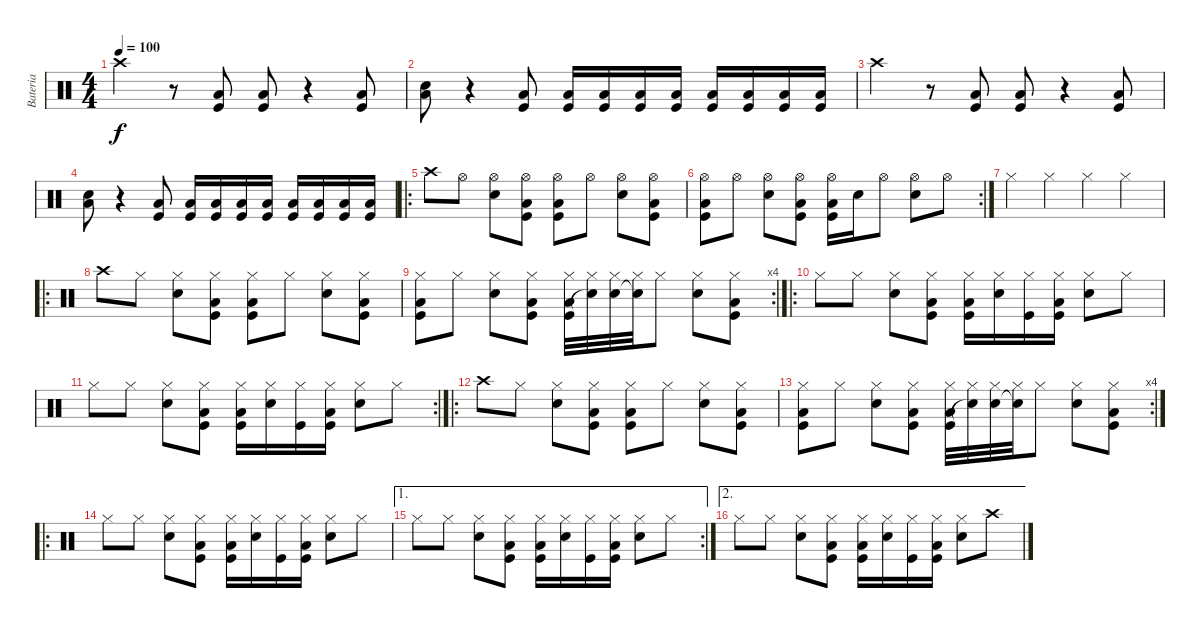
\track ("Bateria" "Bateria") {instrument percussion}
\staff {score}
\articulation defaults
\ts (4 4)
\tempo 100
\clef neutral
\ks c "Crash high (hit)".4{dy f}
r.8 ("Kick (hit)" "Low Tom (hit)").8 ("Kick (hit)" "Low Tom (hit)").8 r.4 ("Kick (hit)" "Low Tom (hit)").8 |
("Snare (hit) 2" "Low Tom (hit)").8 r.4 ("Kick (hit)" "Low Tom (hit)").8 ("Kick (hit)" "Low Tom (hit)").16 ("Kick (hit)" "Low Tom (hit)").16 ("Kick (hit)" "Low Tom (hit)").16 ("Kick (hit)" "Low Tom (hit)").16 ("Kick (hit)" "Low Tom (hit)").16 ("Kick (hit)" "Low Tom (hit)").16 ("Kick (hit)" "Low Tom (hit)").16 ("Kick (hit)" "Low Tom (hit)").16 |
"Crash high (hit)".4 r.8 ("Kick (hit)" "Low Tom (hit)").8 ("Kick (hit)" "Low Tom (hit)").8 r.4 ("Kick (hit)" "Low Tom (hit)").8 |
("Snare (hit) 2" "Low Tom (hit)").8 r.4 ("Kick (hit)" "Low Tom (hit)").8 ("Kick (hit)" "Low Tom (hit)").16 ("Kick (hit)" "Low Tom (hit)").16 ("Kick (hit)" "Low Tom (hit)").16 ("Kick (hit)" "Low Tom (hit)").16 ("Kick (hit)" "Low Tom (hit)").16 ("Kick (hit)" "Low Tom (hit)").16 ("Kick (hit)" "Low Tom (hit)").16 ("Kick (hit)" "Low Tom (hit)").16 |
\ro "Crash high (hit)".8 "Hi-Hat (open)".8
("Hi-Hat (open)" "Snare (hit) 2").8 ("Hi-Hat (open)" "Kick (hit)" "Low Tom (hit)").8 ("Hi-Hat (open)" "Kick (hit)" "Low Tom (hit)").8 "Hi-Hat (open)".8 ("Hi-Hat (open)" "Snare (hit) 2").8 ("Hi-Hat (open)" "Kick (hit)" "Low Tom (hit)").8 |
\rc 2
("Hi-Hat (open)" "Kick (hit)" "Low Tom (hit)").8 "Hi-Hat (open)".8 ("Hi-Hat (open)" "Snare (hit) 2").8 ("Hi-Hat (open)" "Kick (hit)" "Low Tom (hit)").8 ("Hi-Hat (open)" "Kick (hit)" "Low Tom (hit)").16 "Snare (hit) 2".16 "Hi-Hat (open)".8 ("Hi-Hat (open)" "Snare (hit) 2").8 "Hi-Hat (open)".8 |
"Hi-Hat (closed)".4 "Hi-Hat (closed)".4 "Hi-Hat (closed)".4 "Hi-Hat (closed)".4 |
\ro "Crash high (hit)".8 "Hi-Hat (closed)".8
("Hi-Hat (closed)" "Snare (hit) 2").8 ("Hi-Hat (closed)" "Kick (hit)" "Low Tom (hit)").8 ("Hi-Hat (closed)" "Kick (hit)" "Low Tom (hit)").8 "Hi-Hat (closed)".8 ("Hi-Hat (closed)" "Snare (hit) 2").8 ("Hi-Hat (closed)" "Kick (hit)" "Low Tom (hit)").8 |
\rc 4
("Hi-Hat (closed)" "Kick (hit)" "Low Tom (hit)").8 "Hi-Hat (closed)".8 ("Hi-Hat (closed)" "Snare (hit) 2").8 ("Hi-Hat (closed)" "Kick (hit)" "Low Tom (hit)").8 ("Hi-Hat (closed)" "Kick (hit)" "Low Tom (hit)").32 ("Hi-Hat (closed)" "Snare (hit)"{t}).32 ("Hi-Hat (closed)" "Snare (hit) 2").32 ("Hi-Hat (closed)" "Snare (hit) 2"{t}).32 "Hi-Hat (closed)".8 ("Hi-Hat (closed)" "Snare (hit) 2").8 ("Hi-Hat (closed)" "Kick (hit)" "Low Tom (hit)").8 |
\ro "Hi-Hat (closed)".8 "Hi-Hat (closed)".8
("Hi-Hat (closed)" "Snare (hit) 2").8 ("Hi-Hat (closed)" "Kick (hit)" "Low Tom (hit)").8 ("Hi-Hat (closed)" "Kick (hit)" "Low Tom (hit)").16 ("Hi-Hat (closed)" "Snare (hit) 2").16 ("Hi-Hat (closed)" "Kick (hit)").16 ("Hi-Hat (closed)" "Kick (hit)" "Low Tom (hit)").16 ("Hi-Hat (closed)" "Snare (hit) 2").8 "Hi-Hat (closed)".8 |
\rc 2 "Hi-Hat (closed)".8 "Hi-Hat (closed)".8
("Hi-Hat (closed)" "Snare (hit) 2").8 ("Hi-Hat (closed)" "Kick (hit)" "Low Tom (hit)").8 ("Hi-Hat (closed)" "Kick (hit)" "Low Tom (hit)").16 ("Hi-Hat (closed)" "Snare (hit) 2").16 ("Hi-Hat (closed)" "Kick (hit)").16 ("Hi-Hat (closed)" "Kick (hit)" "Low Tom (hit)").16 ("Hi-Hat (closed)" "Snare (hit) 2").8 "Hi-Hat (closed)".8 |
\ro "Crash high (hit)".8 "Hi-Hat (closed)".8
("Hi-Hat (closed)" "Snare (hit) 2").8 ("Hi-Hat (closed)" "Kick (hit)" "Low Tom (hit)").8 ("Hi-Hat (closed)" "Kick (hit)" "Low Tom (hit)").8 "Hi-Hat (closed)".8 ("Hi-Hat (closed)" "Snare (hit) 2").8 ("Hi-Hat (closed)" "Kick (hit)" "Low Tom (hit)").8 |
\rc 4
("Hi-Hat (closed)" "Kick (hit)" "Low Tom (hit)").8 "Hi-Hat (closed)".8 ("Hi-Hat (closed)" "Snare (hit) 2").8 ("Hi-Hat (closed)" "Kick (hit)" "Low Tom (hit)").8 ("Hi-Hat (closed)" "Kick (hit)" "Low Tom (hit)").32 ("Hi-Hat (closed)" "Snare (hit)"{t}).32 ("Hi-Hat (closed)" "Snare (hit) 2").32 ("Hi-Hat (closed)" "Snare (hit) 2"{t}).32 "Hi-Hat (closed)".8 ("Hi-Hat (closed)" "Snare (hit) 2").8 ("Hi-Hat (closed)" "Kick (hit)" "Low Tom (hit)").8 |
\ro "Hi-Hat (closed)".8 "Hi-Hat (closed)".8
("Hi-Hat (closed)" "Snare (hit) 2").8 ("Hi-Hat (closed)" "Kick (hit)" "Low Tom (hit)").8 ("Hi-Hat (closed)" "Kick (hit)" "Low Tom (hit)").16 ("Hi-Hat (closed)" "Snare (hit) 2").16 ("Hi-Hat (closed)" "Kick (hit)").16 ("Hi-Hat (closed)" "Kick (hit)" "Low Tom (hit)").16 ("Hi-Hat (closed)" "Snare (hit) 2").8 "Hi-Hat (closed)".8 |
\ae 1
\rc 2 "Hi-Hat (closed)".8 "Hi-Hat (closed)".8
("Hi-Hat (closed)" "Snare (hit) 2").8 ("Hi-Hat (closed)" "Kick (hit)" "Low Tom (hit)").8 ("Hi-Hat (closed)" "Kick (hit)" "Low Tom (hit)").16 ("Hi-Hat (closed)" "Snare (hit) 2").16 ("Hi-Hat (closed)" "Kick (hit)").16 ("Hi-Hat (closed)" "Kick (hit)" "Low Tom (hit)").16 ("Hi-Hat (closed)" "Snare (hit) 2").8 "Hi-Hat (closed)".8 |
\ae 2 "Hi-Hat (closed)".8 "Hi-Hat (closed)".8
("Hi-Hat (closed)" "Snare (hit) 2").8 ("Hi-Hat (closed)" "Kick (hit)" "Low Tom (hit)").8 ("Hi-Hat (closed)" "Kick (hit)" "Low Tom (hit)").16 ("Hi-Hat (closed)" "Snare (hit) 2").16 ("Hi-Hat (closed)" "Kick (hit)").16 ("Hi-Hat (closed)" "Kick (hit)" "Low Tom (hit)").16 ("Hi-Hat (closed)" "Snare (hit) 2").8 "Crash high (hit)".8
